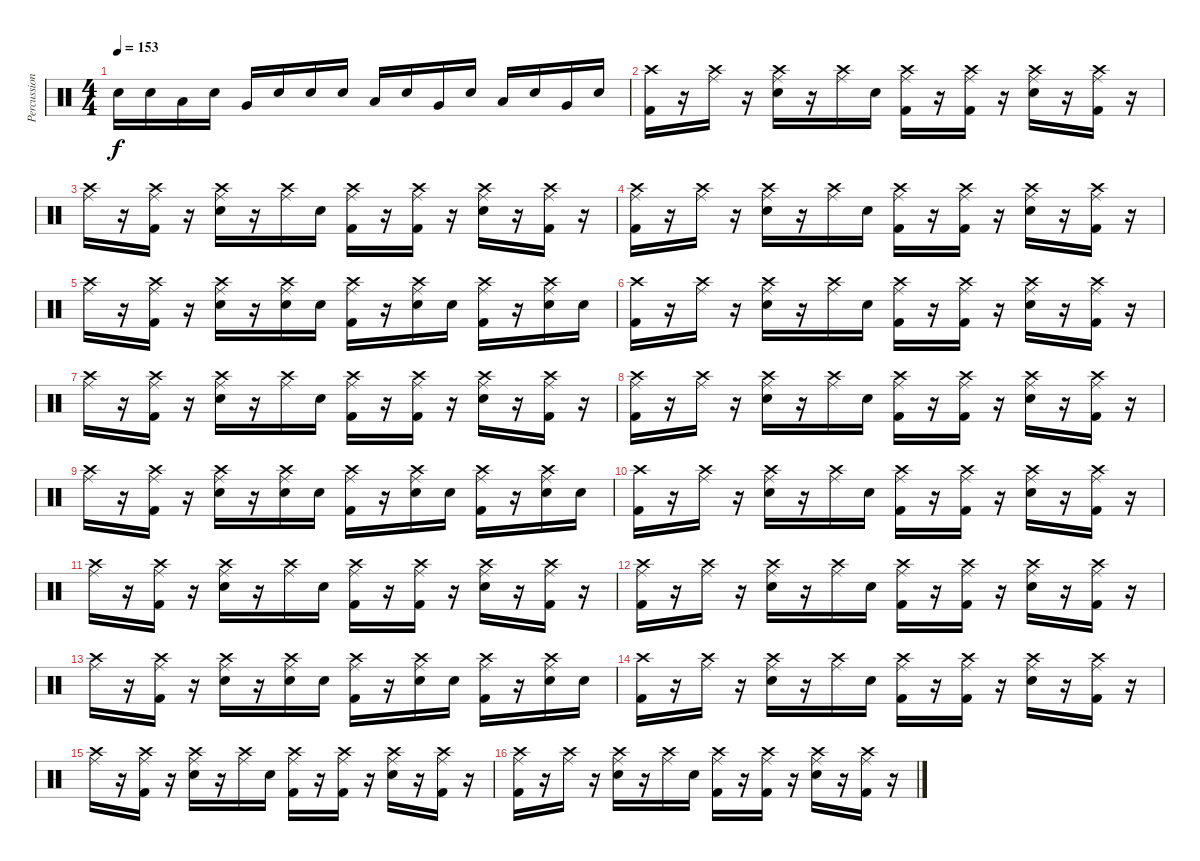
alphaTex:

\track ("Percussion" "Percussion") {instrument percussion}
\staff {score}
\articulation defaults
\ts (4 4)
\tempo 153
\clef neutral
\ks c "Electric Snare (hit)".16{dy f} "Electric Snare (hit)".16 "Low Tom (hit)".16 "Electric Snare (hit)".16 "Very Low Tom (hit)".16 "Electric Snare (hit)".16 "Electric Snare (hit)".16 "Electric Snare (hit)".16 "Low Tom (hit)".16 "Electric Snare (hit)".16 "Very Low Tom (hit)".16 "Electric Snare (hit)".16 "Low Tom (hit)".16 "Electric Snare (hit)".16 "Very Low Tom (hit)".16 "Electric Snare (hit)".16
|
("Kick (hit) 2" "Crash high (hit)").16 r.16 ("Crash high (hit)" "Ride (middle)").16 r.16 ("Electric Snare (hit)" "Crash high (hit)" "Ride (middle)").16 r.16 ("Crash high (hit)" "Ride (middle)").16 "Electric Snare (hit)".16 ("Kick (hit) 2" "Crash high (hit)" "Ride (middle)").16 r.16 ("Kick (hit) 2" "Crash high (hit)" "Ride (middle)").16 r.16 ("Electric Snare (hit)" "Crash high (hit)" "Ride (middle)").16 r.16 ("Kick (hit) 2" "Crash high (hit)" "Ride (middle)").16 r.16 |
("Crash high (hit)" "Ride (middle)").16 r.16 ("Crash high (hit)" "Kick (hit) 2" "Ride (middle)").16 r.16 ("Crash high (hit)" "Electric Snare (hit)" "Ride (middle)").16 r.16 ("Crash high (hit)" "Ride (middle)").16 "Electric Snare (hit)".16 ("Kick (hit) 2" "Crash high (hit)" "Ride (middle)").16 r.16 ("Kick (hit) 2" "Crash high (hit)" "Ride (middle)").16 r.16 ("Electric Snare (hit)" "Crash high (hit)" "Ride (middle)").16 r.16 ("Crash high (hit)" "Kick (hit) 2" "Ride (middle)").16 r.16 |
("Kick (hit) 2" "Crash high (hit)" "Ride (middle)").16 r.16 ("Crash high (hit)" "Ride (middle)").16 r.16 ("Electric Snare (hit)" "Crash high (hit)" "Ride (middle)").16 r.16 ("Crash high (hit)" "Ride (middle)").16 "Electric Snare (hit)".16 ("Kick (hit) 2" "Crash high (hit)" "Ride (middle)").16 r.16 ("Kick (hit) 2" "Crash high (hit)" "Ride (middle)").16 r.16 ("Electric Snare (hit)" "Crash high (hit)" "Ride (middle)").16 r.16 ("Kick (hit) 2" "Crash high (hit)" "Ride (middle)").16 r.16 |
("Crash high (hit)" "Ride (middle)").16 r.16 ("Crash high (hit)" "Ride (middle)" "Kick (hit) 2").16 r.16 ("Crash high (hit)" "Ride (middle)" "Electric Snare (hit)").16 r.16 ("Crash high (hit)" "Electric Snare (hit)" "Ride (middle)").16 "Electric Snare (hit)".16 ("Crash high (hit)" "Kick (hit) 2" "Ride (middle)").16 r.16 ("Crash high (hit)" "Electric Snare (hit)" "Ride (middle)").16 "Electric Snare (hit)".16 ("Crash high (hit)" "Kick (hit) 2" "Ride (middle)").16 r.16 ("Crash high (hit)" "Electric Snare (hit)" "Ride (middle)").16 "Electric Snare (hit)".16 |
("Kick (hit) 2" "Crash high (hit)").16 r.16 ("Crash high (hit)" "Ride (middle)").16 r.16 ("Electric Snare (hit)" "Crash high (hit)" "Ride (middle)").16 r.16 ("Crash high (hit)" "Ride (middle)").16 "Electric Snare (hit)".16 ("Kick (hit) 2" "Crash high (hit)" "Ride (middle)").16 r.16 ("Kick (hit) 2" "Crash high (hit)" "Ride (middle)").16 r.16 ("Electric Snare (hit)" "Crash high (hit)" "Ride (middle)").16 r.16 ("Kick (hit) 2" "Crash high (hit)" "Ride (middle)").16 r.16 |
("Crash high (hit)" "Ride (middle)").16 r.16 ("Crash high (hit)" "Kick (hit) 2" "Ride (middle)").16 r.16 ("Crash high (hit)" "Electric Snare (hit)" "Ride (middle)").16 r.16 ("Crash high (hit)" "Ride (middle)").16 "Electric Snare (hit)".16 ("Kick (hit) 2" "Crash high (hit)" "Ride (middle)").16 r.16 ("Kick (hit) 2" "Crash high (hit)" "Ride (middle)").16 r.16 ("Electric Snare (hit)" "Crash high (hit)" "Ride (middle)").16 r.16 ("Crash high (hit)" "Kick (hit) 2" "Ride (middle)").16 r.16 |
("Kick (hit) 2" "Crash high (hit)" "Ride (middle)").16 r.16 ("Crash high (hit)" "Ride (middle)").16 r.16 ("Electric Snare (hit)" "Crash high (hit)" "Ride (middle)").16 r.16 ("Crash high (hit)" "Ride (middle)").16 "Electric Snare (hit)".16 ("Kick (hit) 2" "Crash high (hit)" "Ride (middle)").16 r.16 ("Kick (hit) 2" "Crash high (hit)" "Ride (middle)").16 r.16 ("Electric Snare (hit)" "Crash high (hit)" "Ride (middle)").16 r.16 ("Kick (hit) 2" "Crash high (hit)" "Ride (middle)").16 r.16 |
("Crash high (hit)" "Ride (middle)").16 r.16 ("Crash high (hit)" "Ride (middle)" "Kick (hit) 2").16 r.16 ("Crash high (hit)" "Ride (middle)" "Electric Snare (hit)").16 r.16 ("Crash high (hit)" "Electric Snare (hit)" "Ride (middle)").16 "Electric Snare (hit)".16 ("Crash high (hit)" "Kick (hit) 2" "Ride (middle)").16 r.16 ("Crash high (hit)" "Electric Snare (hit)" "Ride (middle)").16 "Electric Snare (hit)".16 ("Crash high (hit)" "Kick (hit) 2" "Ride (middle)").16 r.16 ("Crash high (hit)" "Electric Snare (hit)" "Ride (middle)").16 "Electric Snare (hit)".16 |
("Kick (hit) 2" "Crash high (hit)").16 r.16 ("Crash high (hit)" "Ride (middle)").16 r.16 ("Electric Snare (hit)" "Crash high (hit)" "Ride (middle)").16 r.16 ("Crash high (hit)" "Ride (middle)").16 "Electric Snare (hit)".16 ("Kick (hit) 2" "Crash high (hit)" "Ride (middle)").16 r.16 ("Kick (hit) 2" "Crash high (hit)" "Ride (middle)").16 r.16 ("Electric Snare (hit)" "Crash high (hit)" "Ride (middle)").16 r.16 ("Kick (hit) 2" "Crash high (hit)" "Ride (middle)").16 r.16 |
("Crash high (hit)" "Ride (middle)").16 r.16 ("Crash high (hit)" "Kick (hit) 2" "Ride (middle)").16 r.16 ("Crash high (hit)" "Electric Snare (hit)" "Ride (middle)").16 r.16 ("Crash high (hit)" "Ride (middle)").16 "Electric Snare (hit)".16 ("Kick (hit) 2" "Crash high (hit)" "Ride (middle)").16 r.16 ("Kick (hit) 2" "Crash high (hit)" "Ride (middle)").16 r.16 ("Electric Snare (hit)" "Crash high (hit)" "Ride (middle)").16 r.16 ("Crash high (hit)" "Kick (hit) 2" "Ride (middle)").16 r.16 |
("Kick (hit) 2" "Crash high (hit)" "Ride (middle)").16 r.16 ("Crash high (hit)" "Ride (middle)").16 r.16 ("Electric Snare (hit)" "Crash high (hit)" "Ride (middle)").16 r.16 ("Crash high (hit)" "Ride (middle)").16 "Electric Snare (hit)".16 ("Kick (hit) 2" "Crash high (hit)" "Ride (middle)").16 r.16 ("Kick (hit) 2" "Crash high (hit)" "Ride (middle)").16 r.16 ("Electric Snare (hit)" "Crash high (hit)" "Ride (middle)").16 r.16 ("Kick (hit) 2" "Crash high (hit)" "Ride (middle)").16 r.16 |
("Crash high (hit)" "Ride (middle)").16 r.16 ("Crash high (hit)" "Ride (middle)" "Kick (hit) 2").16 r.16 ("Crash high (hit)" "Ride (middle)" "Electric Snare (hit)").16 r.16 ("Crash high (hit)" "Electric Snare (hit)" "Ride (middle)").16 "Electric Snare (hit)".16 ("Crash high (hit)" "Kick (hit) 2" "Ride (middle)").16 r.16 ("Crash high (hit)" "Electric Snare (hit)" "Ride (middle)").16 "Electric Snare (hit)".16 ("Crash high (hit)" "Kick (hit) 2" "Ride (middle)").16 r.16 ("Crash high (hit)" "Electric Snare (hit)" "Ride (middle)").16 "Electric Snare (hit)".16 |
("Kick (hit) 2" "Crash high (hit)").16 r.16 ("Crash high (hit)" "Ride (middle)").16 r.16 ("Electric Snare (hit)" "Crash high (hit)" "Ride (middle)").16 r.16 ("Crash high (hit)" "Ride (middle)").16 "Electric Snare (hit)".16 ("Kick (hit) 2" "Crash high (hit)" "Ride (middle)").16 r.16 ("Kick (hit) 2" "Crash high (hit)" "Ride (middle)").16 r.16 ("Electric Snare (hit)" "Crash high (hit)" "Ride (middle)").16 r.16 ("Kick (hit) 2" "Crash high (hit)" "Ride (middle)").16 r.16 |
("Crash high (hit)" "Ride (middle)").16 r.16 ("Crash high (hit)" "Kick (hit) 2" "Ride (middle)").16 r.16 ("Crash high (hit)" "Electric Snare (hit)" "Ride (middle)").16 r.16 ("Crash high (hit)" "Ride (middle)").16 "Electric Snare (hit)".16 ("Kick (hit) 2" "Crash high (hit)" "Ride (middle)").16 r.16 ("Kick (hit) 2" "Crash high (hit)" "Ride (middle)").16 r.16 ("Electric Snare (hit)" "Crash high (hit)" "Ride (middle)").16 r.16 ("Crash high (hit)" "Kick (hit) 2" "Ride (middle)").16 r.16 |
("Kick (hit) 2" "Crash high (hit)" "Ride (middle)").16 r.16 ("Crash high (hit)" "Ride (middle)").16 r.16 ("Electric Snare (hit)" "Crash high (hit)" "Ride (middle)").16 r.16 ("Crash high (hit)" "Ride (middle)").16 "Electric Snare (hit)".16 ("Kick (hit) 2" "Crash high (hit)" "Ride (middle)").16 r.16 ("Kick (hit) 2" "Crash high (hit)" "Ride (middle)").16 r.16 ("Electric Snare (hit)" "Crash high (hit)" "Ride (middle)").16 r.16 ("Kick (hit) 2" "Crash high (hit)" "Ride (middle)").16 r.16
